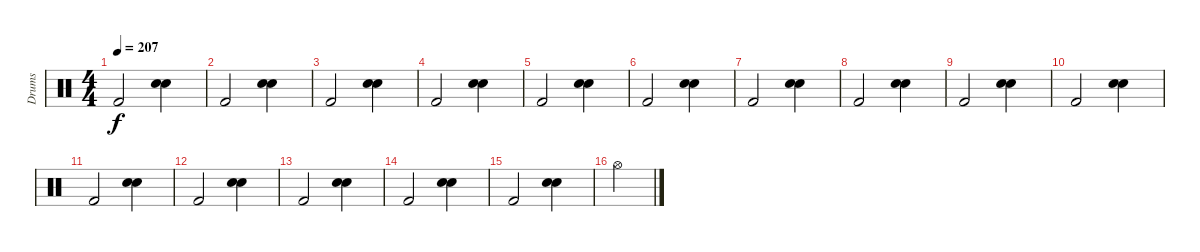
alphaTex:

\track ("Drums" "Drums") {instrument percussion}
\staff {score}
\articulation defaults
\ts (4 4)
\tempo 207
\clef neutral
\ks c "Kick (hit) 2".2{dy f}
("Snare (hit) 2" "Snare (hit) 2").4 |
"Kick (hit) 2".2 ("Snare (hit) 2" "Snare (hit) 2").4 |
"Kick (hit) 2".2 ("Snare (hit) 2" "Snare (hit) 2").4 |
"Kick (hit) 2".2 ("Snare (hit) 2" "Snare (hit) 2").4 |
"Kick (hit) 2".2 ("Snare (hit) 2" "Snare (hit) 2").4 |
"Kick (hit) 2".2 ("Snare (hit) 2" "Snare (hit) 2").4 |
"Kick (hit) 2".2 ("Snare (hit) 2" "Snare (hit) 2").4 |
"Kick (hit) 2".2 ("Snare (hit) 2" "Snare (hit) 2").4 |
"Kick (hit) 2".2 ("Snare (hit) 2" "Snare (hit) 2").4 |
"Kick (hit) 2".2 ("Snare (hit) 2" "Snare (hit) 2").4 |
"Kick (hit) 2".2 ("Snare (hit) 2" "Snare (hit) 2").4 |
"Kick (hit) 2".2 ("Snare (hit) 2" "Snare (hit) 2").4 |
"Kick (hit) 2".2 ("Snare (hit) 2" "Snare (hit) 2").4 |
"Kick (hit) 2".2 ("Snare (hit) 2" "Snare (hit) 2").4 |
"Kick (hit) 2".2 ("Snare (hit) 2" "Snare (hit) 2").4 |
"Hi-Hat (open)".4
